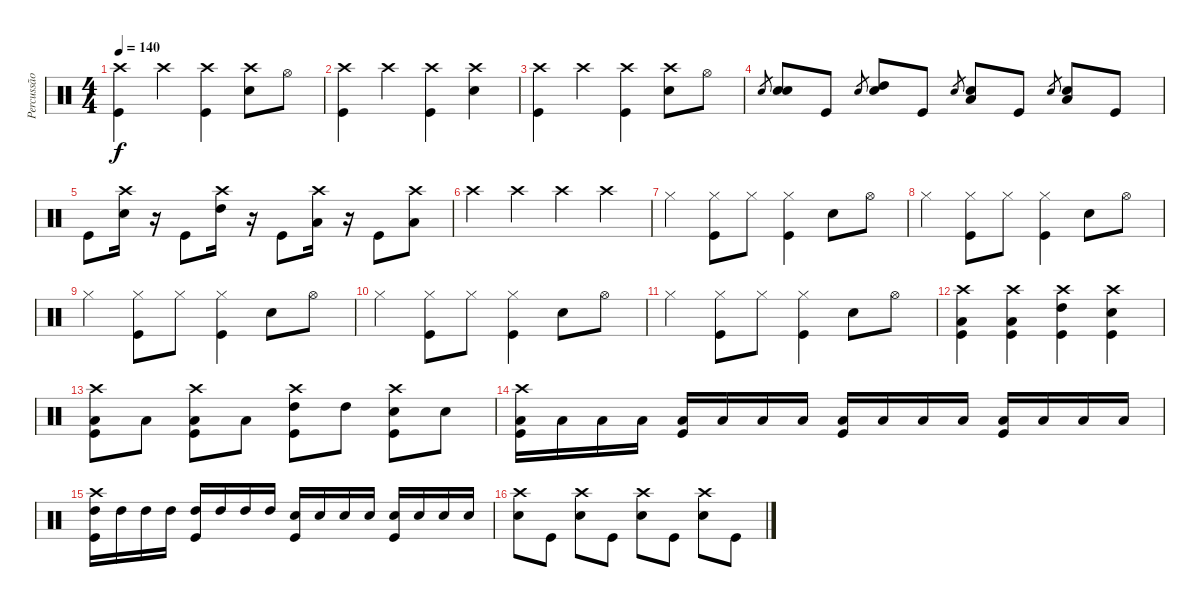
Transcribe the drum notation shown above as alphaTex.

\track ("Percussão" "Percussão") {instrument percussion}
\staff {score}
\articulation defaults
\ts (4 4)
\tempo 140
\clef neutral
\ks c
("Crash high (hit)" "Kick (hit)").4{dy f} "Crash high (hit)".4 ("Crash high (hit)" "Kick (hit)").4 ("Crash high (hit)" "Electric Snare (hit)").8 "Hi-Hat (open)".8 |
("Crash high (hit)" "Kick (hit)").4 "Crash high (hit)".4 ("Crash high (hit)" "Kick (hit)").4 ("Crash high (hit)" "Electric Snare (hit)").4 |
("Crash high (hit)" "Kick (hit)").4 "Crash high (hit)".4 ("Crash high (hit)" "Kick (hit)").4 ("Crash high (hit)" "Electric Snare (hit)").8 "Hi-Hat (open)".8 |
"Electric Snare (hit)".8{gr} ("Electric Snare (hit)" "Electric Snare (hit)").8 "Kick (hit)".8 "Electric Snare (hit)".8{gr} ("Electric Snare (hit)" "High Tom (hit)").8 "Kick (hit)".8 "Electric Snare (hit)".8{gr} ("Electric Snare (hit)" "Low Tom (hit)").8 "Kick (hit)".8 "Electric Snare (hit)".8{gr} ("Electric Snare (hit)" "Low Floor Tom (hit)").8 "Kick (hit)".8 |
"Kick (hit)".8 ("Electric Snare (hit)" "Crash high (hit)").16 r.16 "Kick (hit)".8 ("High Tom (hit)" "Crash high (hit)").16 r.16 "Kick (hit)".8 ("Low Tom (hit)" "Crash high (hit)").16 r.16 "Kick (hit)".8 ("Low Floor Tom (hit)" "Crash high (hit)").8 |
"Crash high (hit)".4 "Crash high (hit)".4 "Crash high (hit)".4 "Crash high (hit)".4 |
"Hi-Hat (closed)".4 ("Hi-Hat (closed)" "Kick (hit)").8 "Hi-Hat (closed)".8 ("Hi-Hat (closed)" "Kick (hit)").4 "Electric Snare (hit)".8 "Hi-Hat (open)".8 |
"Hi-Hat (closed)".4 ("Hi-Hat (closed)" "Kick (hit)").8 "Hi-Hat (closed)".8 ("Hi-Hat (closed)" "Kick (hit)").4 "Electric Snare (hit)".8 "Hi-Hat (open)".8 |
"Hi-Hat (closed)".4 ("Hi-Hat (closed)" "Kick (hit)").8 "Hi-Hat (closed)".8 ("Hi-Hat (closed)" "Kick (hit)").4 "Snare (hit) 2".8 "Hi-Hat (open)".8 |
"Hi-Hat (closed)".4 ("Hi-Hat (closed)" "Kick (hit)").8 "Hi-Hat (closed)".8 ("Hi-Hat (closed)" "Kick (hit)").4 "Electric Snare (hit)".8 "Hi-Hat (open)".8 |
"Hi-Hat (closed)".4 ("Hi-Hat (closed)" "Kick (hit)").8 "Hi-Hat (closed)".8 ("Hi-Hat (closed)" "Kick (hit)").4 "Electric Snare (hit)".8 "Hi-Hat (open)".8 |
("Crash high (hit)" "Low Floor Tom (hit)" "Kick (hit)").4 ("Crash high (hit)" "Low Tom (hit)" "Kick (hit)").4 ("Crash high (hit)" "High Tom (hit)" "Kick (hit)").4 ("Crash high (hit)" "Electric Snare (hit)" "Kick (hit)").4 |
("Crash high (hit)" "Low Floor Tom (hit)" "Kick (hit)").8 "Low Floor Tom (hit)".8 ("Crash high (hit)" "Low Tom (hit)" "Kick (hit)").8 "Low Tom (hit)".8 ("Crash high (hit)" "High Tom (hit)" "Kick (hit)").8 "High Tom (hit)".8 ("Crash high (hit)" "Electric Snare (hit)" "Kick (hit)").8 "Electric Snare (hit)".8 |
("Low Floor Tom (hit)" "Kick (hit)" "Crash high (hit)").16 "Low Floor Tom (hit)".16 "Low Floor Tom (hit)".16 "Low Floor Tom (hit)".16 ("Low Floor Tom (hit)" "Kick (hit)").16 "Low Floor Tom (hit)".16 "Low Floor Tom (hit)".16 "Low Floor Tom (hit)".16 ("Low Tom (hit)" "Kick (hit)").16 "Low Tom (hit)".16 "Low Tom (hit)".16 "Low Tom (hit)".16 ("Low Tom (hit)" "Kick (hit)").16 "Low Tom (hit)".16 "Low Tom (hit)".16 "Low Tom (hit)".16 |
("High Tom (hit)" "Kick (hit)" "Crash high (hit)").16 "High Tom (hit)".16 "High Tom (hit)".16 "High Tom (hit)".16 ("High Tom (hit)" "Kick (hit)").16 "High Tom (hit)".16 "High Tom (hit)".16 "High Tom (hit)".16 ("Electric Snare (hit)" "Kick (hit)").16 "Electric Snare (hit)".16 "Electric Snare (hit)".16 "Electric Snare (hit)".16 ("Electric Snare (hit)" "Kick (hit)").16 "Electric Snare (hit)".16 "Electric Snare (hit)".16 "Electric Snare (hit)".16 |
("Crash high (hit)" "Electric Snare (hit)").8 "Kick (hit)".8 ("Crash high (hit)" "Electric Snare (hit)").8 "Kick (hit)".8 ("Crash high (hit)" "Electric Snare (hit)").8 "Kick (hit)".8 ("Crash high (hit)" "Electric Snare (hit)").8 "Kick (hit)".8
